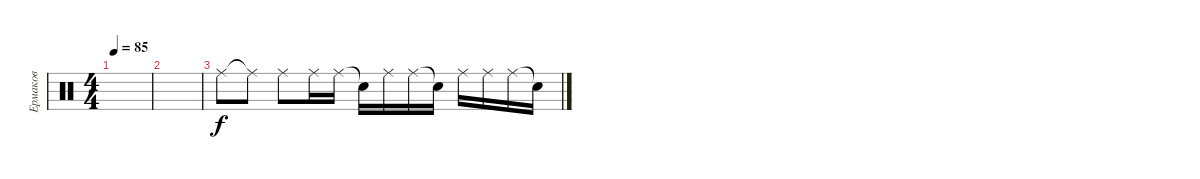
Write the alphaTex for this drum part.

\track ("Ермаков" "Ермаков") {instrument percussion}
\staff {score}
\articulation defaults
\ts (4 4)
\tempo 85
\clef neutral
\ks c
|
|
"Ride (middle)".8 "Ride (middle)"{t}.8 "Ride (middle)".8 "Ride (middle)".16 "Ride (middle)".16 "Snare (hit)"{t}.16 "Ride (middle)".16 "Ride (middle)".16 "Snare (hit)"{t}.16 "Ride (middle)".16 "Ride (middle)".16 "Ride (middle)".16 "Snare (hit)"{t}.16
